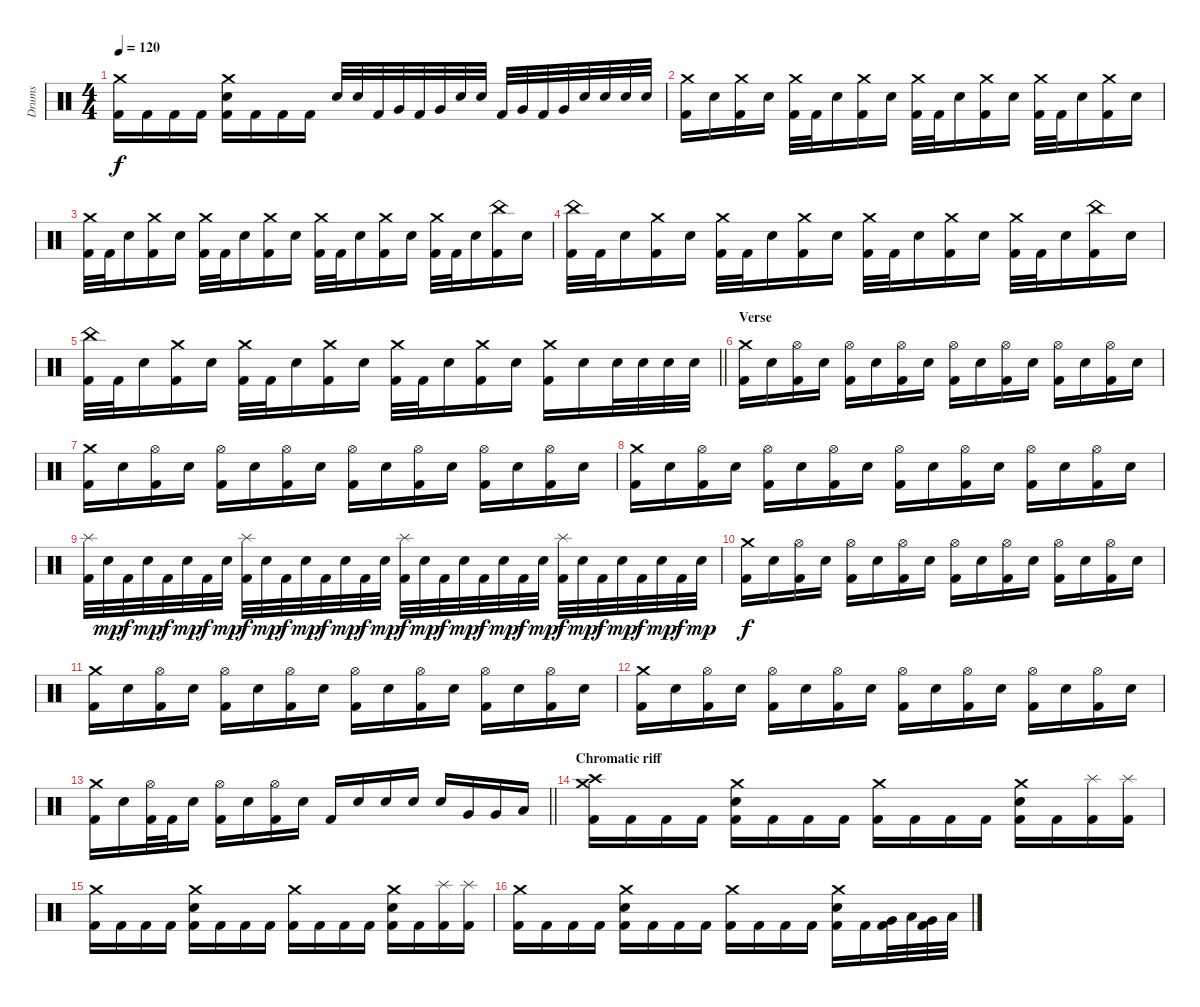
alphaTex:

\track ("Drums" "Drums") {instrument percussion}
\staff {score}
\articulation defaults
\ts (4 4)
\tempo 120
\clef neutral
\ks c
("Crash medium (hit)" "Kick (hit) 2").16{dy f} "Kick (hit) 2".16 "Kick (hit) 2".16 "Kick (hit) 2".16 ("Crash medium (hit)" "Electric Snare (hit)" "Kick (hit) 2").16 "Kick (hit) 2".16 "Kick (hit) 2".16 "Kick (hit) 2".16 "Electric Snare (hit)".32 "Electric Snare (hit)".32 "Kick (hit) 2".32 "Very Low Tom (hit)".32 "Kick (hit) 2".32 "Very Low Tom (hit)".32 "Electric Snare (hit)".32 "Electric Snare (hit)".32 "Kick (hit) 2".32 "Very Low Tom (hit)".32 "Kick (hit) 2".32 "Very Low Tom (hit)".32 "Electric Snare (hit)".32 "Electric Snare (hit)".32 "Electric Snare (hit)".32 "Electric Snare (hit)".32 |
("Crash medium (hit)" "Kick (hit) 2").16 "Electric Snare (hit)".16 ("Crash medium (hit)" "Kick (hit) 2").16 "Electric Snare (hit)".16 ("Crash medium (hit)" "Kick (hit) 2").32 "Kick (hit) 2".32 "Electric Snare (hit)".16 ("Crash medium (hit)" "Kick (hit) 2").16 "Electric Snare (hit)".16 ("Crash medium (hit)" "Kick (hit) 2").32 "Kick (hit) 2".32 "Electric Snare (hit)".16 ("Crash medium (hit)" "Kick (hit) 2").16 "Electric Snare (hit)".16 ("Crash medium (hit)" "Kick (hit) 2").32 "Kick (hit) 2".32 "Electric Snare (hit)".16 ("Crash medium (hit)" "Kick (hit) 2").16 "Electric Snare (hit)".16 |
("Crash medium (hit)" "Kick (hit) 2").32 "Kick (hit) 2".32 "Electric Snare (hit)".16 ("Crash medium (hit)" "Kick (hit) 2").16 "Electric Snare (hit)".16 ("Crash medium (hit)" "Kick (hit) 2").32 "Kick (hit) 2".32 "Electric Snare (hit)".16 ("Crash medium (hit)" "Kick (hit) 2").16 "Electric Snare (hit)".16 ("Crash medium (hit)" "Kick (hit) 2").32 "Kick (hit) 2".32 "Electric Snare (hit)".16 ("Crash medium (hit)" "Kick (hit) 2").16 "Electric Snare (hit)".16 ("Crash medium (hit)" "Kick (hit) 2").32 "Kick (hit) 2".32 "Electric Snare (hit)".16 ("China (hit)" "Kick (hit) 2").16 "Electric Snare (hit)".16 |
("China (hit)" "Kick (hit) 2").32 "Kick (hit) 2".32 "Electric Snare (hit)".16 ("Crash medium (hit)" "Kick (hit) 2").16 "Electric Snare (hit)".16 ("Crash medium (hit)" "Kick (hit) 2").32 "Kick (hit) 2".32 "Electric Snare (hit)".16 ("Crash medium (hit)" "Kick (hit) 2").16 "Electric Snare (hit)".16 ("Crash medium (hit)" "Kick (hit) 2").32 "Kick (hit) 2".32 "Electric Snare (hit)".16 ("Crash medium (hit)" "Kick (hit) 2").16 "Electric Snare (hit)".16 ("Crash medium (hit)" "Kick (hit) 2").32 "Kick (hit) 2".32 "Electric Snare (hit)".16 ("China (hit)" "Kick (hit) 2").16 "Electric Snare (hit)".16 |
\barLineRight lightlight
("China (hit)" "Kick (hit) 2").32 "Kick (hit) 2".32 "Electric Snare (hit)".16 ("Crash medium (hit)" "Kick (hit) 2").16 "Electric Snare (hit)".16 ("Crash medium (hit)" "Kick (hit) 2").32 "Kick (hit) 2".32 "Electric Snare (hit)".16 ("Crash medium (hit)" "Kick (hit) 2").16 "Electric Snare (hit)".16 ("Crash medium (hit)" "Kick (hit) 2").32 "Kick (hit) 2".32 "Electric Snare (hit)".16 ("Crash medium (hit)" "Kick (hit) 2").16 "Electric Snare (hit)".16 ("Crash medium (hit)" "Kick (hit) 2").16 "Electric Snare (hit)".16 "Electric Snare (hit)".32 "Electric Snare (hit)".32 "Electric Snare (hit)".32 "Electric Snare (hit)".32 |
\section ("" "Verse")
("Crash medium (hit)" "Kick (hit) 2").16 "Electric Snare (hit)".16 ("Hi-Hat (open)" "Kick (hit) 2").16 "Electric Snare (hit)".16 ("Hi-Hat (open)" "Kick (hit) 2").16 "Electric Snare (hit)".16 ("Hi-Hat (open)" "Kick (hit) 2").16 "Electric Snare (hit)".16 ("Hi-Hat (open)" "Kick (hit) 2").16 "Electric Snare (hit)".16 ("Hi-Hat (open)" "Kick (hit) 2").16 "Electric Snare (hit)".16 ("Hi-Hat (open)" "Kick (hit) 2").16 "Electric Snare (hit)".16 ("Hi-Hat (open)" "Kick (hit) 2").16 "Electric Snare (hit)".16 |
("Crash medium (hit)" "Kick (hit) 2").16 "Electric Snare (hit)".16 ("Hi-Hat (open)" "Kick (hit) 2").16 "Electric Snare (hit)".16 ("Hi-Hat (open)" "Kick (hit) 2").16 "Electric Snare (hit)".16 ("Hi-Hat (open)" "Kick (hit) 2").16 "Electric Snare (hit)".16 ("Hi-Hat (open)" "Kick (hit) 2").16 "Electric Snare (hit)".16 ("Hi-Hat (open)" "Kick (hit) 2").16 "Electric Snare (hit)".16 ("Hi-Hat (open)" "Kick (hit) 2").16 "Electric Snare (hit)".16 ("Hi-Hat (open)" "Kick (hit) 2").16 "Electric Snare (hit)".16 |
("Crash medium (hit)" "Kick (hit) 2").16 "Electric Snare (hit)".16 ("Hi-Hat (open)" "Kick (hit) 2").16 "Electric Snare (hit)".16 ("Hi-Hat (open)" "Kick (hit) 2").16 "Electric Snare (hit)".16 ("Hi-Hat (open)" "Kick (hit) 2").16 "Electric Snare (hit)".16 ("Hi-Hat (open)" "Kick (hit) 2").16 "Electric Snare (hit)".16 ("Hi-Hat (open)" "Kick (hit) 2").16 "Electric Snare (hit)".16 ("Hi-Hat (open)" "Kick (hit) 2").16 "Electric Snare (hit)".16 ("Hi-Hat (open)" "Kick (hit) 2").16 "Electric Snare (hit)".16 |
("Splash (hit)" "Kick (hit) 2").32 "Electric Snare (hit)".32{dy mp} "Kick (hit) 2".32{dy f} "Electric Snare (hit)".32{dy mp} "Kick (hit) 2".32{dy f} "Electric Snare (hit)".32{dy mp} "Kick (hit) 2".32{dy f} "Electric Snare (hit)".32{dy mp} ("Splash (hit)" "Kick (hit) 2").32{dy f} "Electric Snare (hit)".32{dy mp} "Kick (hit) 2".32{dy f} "Electric Snare (hit)".32{dy mp} "Kick (hit) 2".32{dy f} "Electric Snare (hit)".32{dy mp} "Kick (hit) 2".32{dy f} "Electric Snare (hit)".32{dy mp} ("Splash (hit)" "Kick (hit) 2").32{dy f} "Electric Snare (hit)".32{dy mp} "Kick (hit) 2".32{dy f} "Electric Snare (hit)".32{dy mp} "Kick (hit) 2".32{dy f} "Electric Snare (hit)".32{dy mp} "Kick (hit) 2".32{dy f} "Electric Snare (hit)".32{dy mp} ("Splash (hit)" "Kick (hit) 2").32{dy f} "Electric Snare (hit)".32{dy mp} "Kick (hit) 2".32{dy f} "Electric Snare (hit)".32{dy mp} "Kick (hit) 2".32{dy f} "Electric Snare (hit)".32{dy mp} "Kick (hit) 2".32{dy f} "Electric Snare (hit)".32{dy mp} |
("Crash medium (hit)" "Kick (hit) 2").16{dy f} "Electric Snare (hit)".16 ("Hi-Hat (open)" "Kick (hit) 2").16 "Electric Snare (hit)".16 ("Hi-Hat (open)" "Kick (hit) 2").16 "Electric Snare (hit)".16 ("Hi-Hat (open)" "Kick (hit) 2").16 "Electric Snare (hit)".16 ("Hi-Hat (open)" "Kick (hit) 2").16 "Electric Snare (hit)".16 ("Hi-Hat (open)" "Kick (hit) 2").16 "Electric Snare (hit)".16 ("Hi-Hat (open)" "Kick (hit) 2").16 "Electric Snare (hit)".16 ("Hi-Hat (open)" "Kick (hit) 2").16 "Electric Snare (hit)".16 |
("Crash medium (hit)" "Kick (hit) 2").16 "Electric Snare (hit)".16 ("Hi-Hat (open)" "Kick (hit) 2").16 "Electric Snare (hit)".16 ("Hi-Hat (open)" "Kick (hit) 2").16 "Electric Snare (hit)".16 ("Hi-Hat (open)" "Kick (hit) 2").16 "Electric Snare (hit)".16 ("Hi-Hat (open)" "Kick (hit) 2").16 "Electric Snare (hit)".16 ("Hi-Hat (open)" "Kick (hit) 2").16 "Electric Snare (hit)".16 ("Hi-Hat (open)" "Kick (hit) 2").16 "Electric Snare (hit)".16 ("Hi-Hat (open)" "Kick (hit) 2").16 "Electric Snare (hit)".16 |
("Crash medium (hit)" "Kick (hit) 2").16 "Electric Snare (hit)".16 ("Hi-Hat (open)" "Kick (hit) 2").16 "Electric Snare (hit)".16 ("Hi-Hat (open)" "Kick (hit) 2").16 "Electric Snare (hit)".16 ("Hi-Hat (open)" "Kick (hit) 2").16 "Electric Snare (hit)".16 ("Hi-Hat (open)" "Kick (hit) 2").16 "Electric Snare (hit)".16 ("Hi-Hat (open)" "Kick (hit) 2").16 "Electric Snare (hit)".16 ("Hi-Hat (open)" "Kick (hit) 2").16 "Electric Snare (hit)".16 ("Hi-Hat (open)" "Kick (hit) 2").16 "Electric Snare (hit)".16 |
\barLineRight lightlight
("Crash medium (hit)" "Kick (hit) 2").16 "Electric Snare (hit)".16 ("Hi-Hat (open)" "Kick (hit) 2").32 "Kick (hit) 2".32 "Electric Snare (hit)".16 ("Hi-Hat (open)" "Kick (hit) 2").16 "Electric Snare (hit)".16 ("Hi-Hat (open)" "Kick (hit) 2").16 "Electric Snare (hit)".16 "Kick (hit) 2".16 "Electric Snare (hit)".16 "Electric Snare (hit)".16 "Electric Snare (hit)".16 "Electric Snare (hit)".16 "Very Low Tom (hit)".16 "Very Low Tom (hit)".16 "Low Tom (hit)".16 |
\section ("" "Chromatic riff")
("Crash medium (hit)" "Crash high (hit)" "Kick (hit) 2").16 "Kick (hit) 2".16 "Kick (hit) 2".16 "Kick (hit) 2".16 ("Crash medium (hit)" "Electric Snare (hit)" "Kick (hit) 2").16 "Kick (hit) 2".16 "Kick (hit) 2".16 "Kick (hit) 2".16 ("Crash medium (hit)" "Kick (hit) 2").16 "Kick (hit) 2".16 "Kick (hit) 2".16 "Kick (hit) 2".16 ("Crash medium (hit)" "Electric Snare (hit)" "Kick (hit) 2").16 "Kick (hit) 2".16 ("Splash (hit)" "Kick (hit) 2").16 ("Splash (hit)" "Kick (hit) 2").16 |
("Crash medium (hit)" "Kick (hit) 2").16 "Kick (hit) 2".16 "Kick (hit) 2".16 "Kick (hit) 2".16 ("Crash medium (hit)" "Electric Snare (hit)" "Kick (hit) 2").16 "Kick (hit) 2".16 "Kick (hit) 2".16 "Kick (hit) 2".16 ("Crash medium (hit)" "Kick (hit) 2").16 "Kick (hit) 2".16 "Kick (hit) 2".16 "Kick (hit) 2".16 ("Crash medium (hit)" "Electric Snare (hit)" "Kick (hit) 2").16 "Kick (hit) 2".16 ("Splash (hit)" "Kick (hit) 2").16 ("Splash (hit)" "Kick (hit) 2").16 |
("Crash medium (hit)" "Kick (hit) 2").16 "Kick (hit) 2".16 "Kick (hit) 2".16 "Kick (hit) 2".16 ("Crash medium (hit)" "Electric Snare (hit)" "Kick (hit) 2").16 "Kick (hit) 2".16 "Kick (hit) 2".16 "Kick (hit) 2".16 ("Crash medium (hit)" "Kick (hit) 2").16 "Kick (hit) 2".16 "Kick (hit) 2".16 "Kick (hit) 2".16 ("Crash medium (hit)" "Electric Snare (hit)" "Kick (hit) 2").16 "Kick (hit) 2".16 ("Very Low Tom (hit)" "Kick (hit) 2").32 "Low Floor Tom (hit)".32 ("Very Low Tom (hit)" "Kick (hit) 2").32 "Low Floor Tom (hit)".32
